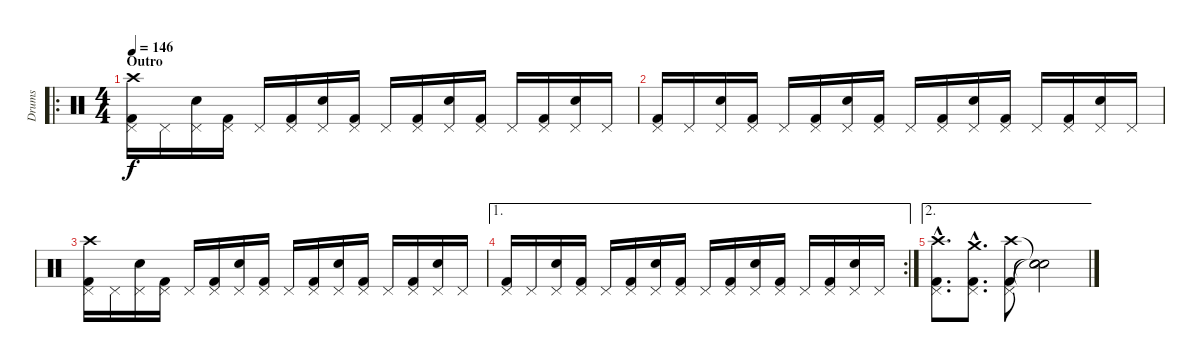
\track ("Drums" "Drums") {instrument percussion}
\staff {score}
\articulation defaults
\ro
\ts (4 4)
\section ("" "Outro")
\tempo 146
\clef neutral
\ks c
("Kick (hit) 2" "Pedal Hi-Hat (hit)" "Crash high (hit)").16{dy f} "Pedal Hi-Hat (hit)".16 ("Snare (hit) 2" "Pedal Hi-Hat (hit)").16 ("Kick (hit) 2" "Pedal Hi-Hat (hit)").16 "Pedal Hi-Hat (hit)".16 ("Kick (hit) 2" "Pedal Hi-Hat (hit)").16 ("Snare (hit) 2" "Pedal Hi-Hat (hit)").16 ("Kick (hit) 2" "Pedal Hi-Hat (hit)").16 "Pedal Hi-Hat (hit)".16 ("Kick (hit) 2" "Pedal Hi-Hat (hit)").16 ("Snare (hit) 2" "Pedal Hi-Hat (hit)").16 ("Kick (hit) 2" "Pedal Hi-Hat (hit)").16 "Pedal Hi-Hat (hit)".16 ("Kick (hit) 2" "Pedal Hi-Hat (hit)").16 ("Snare (hit) 2" "Pedal Hi-Hat (hit)").16 "Pedal Hi-Hat (hit)".16 |
("Kick (hit) 2" "Pedal Hi-Hat (hit)").16 "Pedal Hi-Hat (hit)".16 ("Snare (hit) 2" "Pedal Hi-Hat (hit)").16 ("Kick (hit) 2" "Pedal Hi-Hat (hit)").16 "Pedal Hi-Hat (hit)".16 ("Kick (hit) 2" "Pedal Hi-Hat (hit)").16 ("Snare (hit) 2" "Pedal Hi-Hat (hit)").16 ("Kick (hit) 2" "Pedal Hi-Hat (hit)").16 "Pedal Hi-Hat (hit)".16 ("Kick (hit) 2" "Pedal Hi-Hat (hit)").16 ("Snare (hit) 2" "Pedal Hi-Hat (hit)").16 ("Kick (hit) 2" "Pedal Hi-Hat (hit)").16 "Pedal Hi-Hat (hit)".16 ("Kick (hit) 2" "Pedal Hi-Hat (hit)").16 ("Snare (hit) 2" "Pedal Hi-Hat (hit)").16 "Pedal Hi-Hat (hit)".16 |
("Kick (hit) 2" "Pedal Hi-Hat (hit)" "Crash high (hit)").16 "Pedal Hi-Hat (hit)".16 ("Snare (hit) 2" "Pedal Hi-Hat (hit)").16 ("Kick (hit) 2" "Pedal Hi-Hat (hit)").16 "Pedal Hi-Hat (hit)".16 ("Kick (hit) 2" "Pedal Hi-Hat (hit)").16 ("Snare (hit) 2" "Pedal Hi-Hat (hit)").16 ("Kick (hit) 2" "Pedal Hi-Hat (hit)").16 "Pedal Hi-Hat (hit)".16 ("Kick (hit) 2" "Pedal Hi-Hat (hit)").16 ("Snare (hit) 2" "Pedal Hi-Hat (hit)").16 ("Kick (hit) 2" "Pedal Hi-Hat (hit)").16 "Pedal Hi-Hat (hit)".16 ("Kick (hit) 2" "Pedal Hi-Hat (hit)").16 ("Snare (hit) 2" "Pedal Hi-Hat (hit)").16 "Pedal Hi-Hat (hit)".16 |
\ae 1
\rc 2
("Kick (hit) 2" "Pedal Hi-Hat (hit)").16 "Pedal Hi-Hat (hit)".16 ("Snare (hit) 2" "Pedal Hi-Hat (hit)").16 ("Kick (hit) 2" "Pedal Hi-Hat (hit)").16 "Pedal Hi-Hat (hit)".16 ("Kick (hit) 2" "Pedal Hi-Hat (hit)").16 ("Snare (hit) 2" "Pedal Hi-Hat (hit)").16 ("Kick (hit) 2" "Pedal Hi-Hat (hit)").16 "Pedal Hi-Hat (hit)".16 ("Kick (hit) 2" "Pedal Hi-Hat (hit)").16 ("Snare (hit) 2" "Pedal Hi-Hat (hit)").16 ("Kick (hit) 2" "Pedal Hi-Hat (hit)").16 "Pedal Hi-Hat (hit)".16 ("Kick (hit) 2" "Pedal Hi-Hat (hit)").16 ("Snare (hit) 2" "Pedal Hi-Hat (hit)").16 "Pedal Hi-Hat (hit)".16 |
\ae 2
("Kick (hit) 2"{hac} "Pedal Hi-Hat (hit)"{hac} "Crash high (hit)"{hac}).8{d} ("Kick (hit) 2"{hac} "Pedal Hi-Hat (hit)"{hac} "Crash medium (hit)"{hac}).8{d} ("Kick (hit) 2" "Pedal Hi-Hat (hit)" "Crash high (hit)").8 ("Snare (hit)"{t} "Snare (hit)"{t} "Snare (hit)"{t}).2
